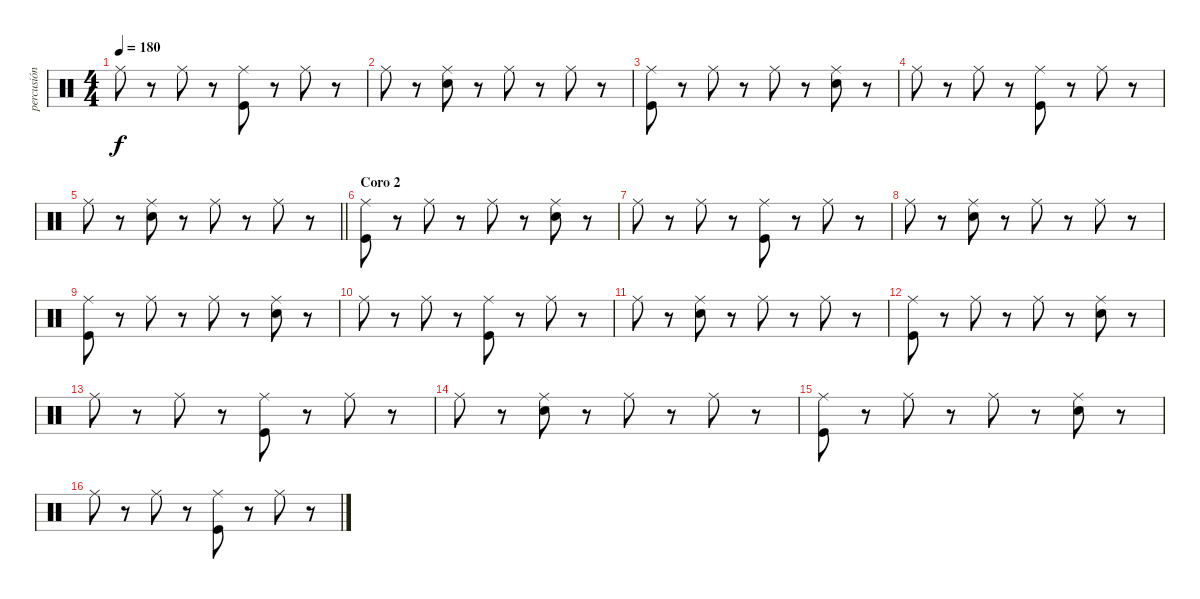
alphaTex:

\track ("percusión" "percusión") {instrument percussion}
\staff {score}
\articulation defaults
\ts (4 4)
\tempo 180
\clef neutral
\ks c "Ride (middle)".8{dy f}
r.8 "Ride (middle)".8 r.8 ("Ride (middle)" "Kick (hit)").8 r.8 "Ride (middle)".8 r.8 |
"Ride (middle)".8 r.8 ("Snare (hit) 2" "Ride (middle)").8 r.8 "Ride (middle)".8 r.8 "Ride (middle)".8 r.8 |
("Ride (middle)" "Kick (hit)").8 r.8 "Ride (middle)".8 r.8 "Ride (middle)".8 r.8 ("Snare (hit) 2" "Ride (middle)").8 r.8 |
"Ride (middle)".8 r.8 "Ride (middle)".8 r.8 ("Kick (hit)" "Ride (middle)").8 r.8 "Ride (middle)".8 r.8 |
\barLineRight lightlight "Ride (middle)".8
r.8 ("Snare (hit) 2" "Ride (middle)").8 r.8 "Ride (middle)".8 r.8 "Ride (middle)".8 r.8 |
\section ("" "Coro 2")
("Ride (middle)" "Kick (hit)").8 r.8 "Ride (middle)".8 r.8 "Ride (middle)".8 r.8 ("Ride (middle)" "Snare (hit) 2").8 r.8 |
"Ride (middle)".8 r.8 "Ride (middle)".8 r.8 ("Ride (middle)" "Kick (hit)").8 r.8 "Ride (middle)".8 r.8 |
"Ride (middle)".8 r.8 ("Ride (middle)" "Snare (hit) 2").8 r.8 "Ride (middle)".8 r.8 "Ride (middle)".8 r.8 |
("Kick (hit)" "Ride (middle)").8 r.8 "Ride (middle)".8 r.8 "Ride (middle)".8 r.8 ("Snare (hit) 2" "Ride (middle)").8 r.8 |
"Ride (middle)".8 r.8 "Ride (middle)".8 r.8 ("Kick (hit)" "Ride (middle)").8 r.8 "Ride (middle)".8 r.8 |
"Ride (middle)".8 r.8 ("Snare (hit) 2" "Ride (middle)").8 r.8 "Ride (middle)".8 r.8 "Ride (middle)".8 r.8 |
("Ride (middle)" "Kick (hit)").8 r.8 "Ride (middle)".8 r.8 "Ride (middle)".8 r.8 ("Snare (hit) 2" "Ride (middle)").8 r.8 |
"Ride (middle)".8 r.8 "Ride (middle)".8 r.8 ("Kick (hit)" "Ride (middle)").8 r.8 "Ride (middle)".8 r.8 |
"Ride (middle)".8 r.8 ("Ride (middle)" "Snare (hit) 2").8 r.8 "Ride (middle)".8 r.8 "Ride (middle)".8 r.8 |
("Kick (hit)" "Ride (middle)").8 r.8 "Ride (middle)".8 r.8 "Ride (middle)".8 r.8 ("Ride (middle)" "Snare (hit) 2").8 r.8 |
"Ride (middle)".8 r.8 "Ride (middle)".8 r.8 ("Ride (middle)" "Kick (hit)").8 r.8 "Ride (middle)".8 r.8
